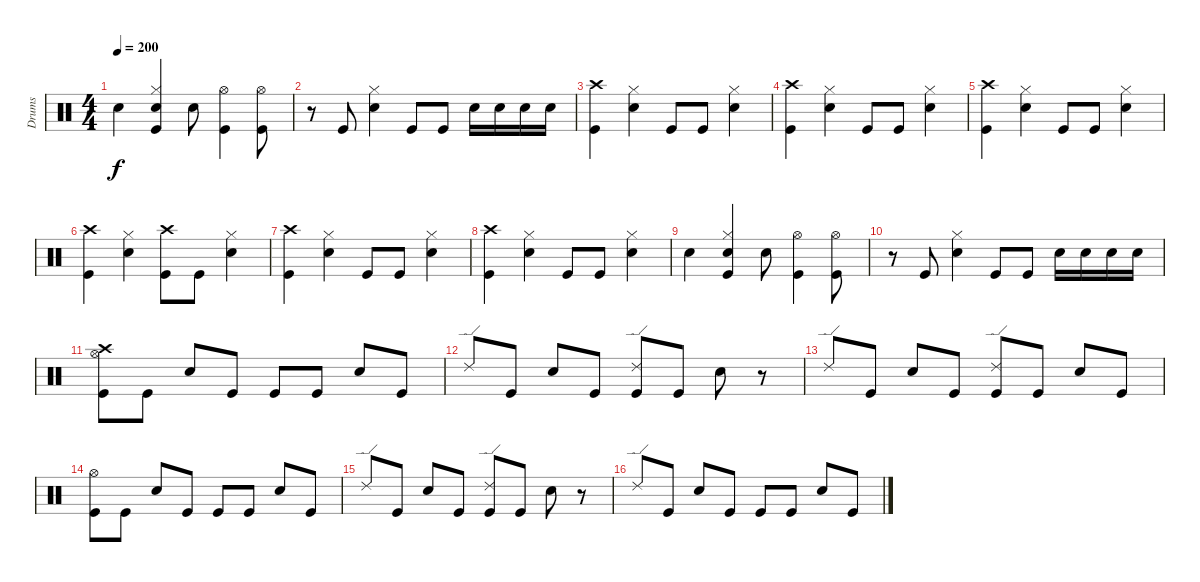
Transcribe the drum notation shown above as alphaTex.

\track ("Drums" "Drums") {instrument percussion}
\staff {score}
\articulation defaults
\ts (4 4)
\tempo 200
\clef neutral
\ks c "Snare (hit) 2".4{dy f}
("Hi-Hat (closed)" "Snare (hit) 2" "Kick (hit)").4 "Snare (hit) 2".8 ("Hi-Hat (open)" "Kick (hit)").4 ("Hi-Hat (open)" "Kick (hit)").8 |
r.8 "Kick (hit)".8 ("Hi-Hat (closed)" "Snare (hit) 2").4 "Kick (hit)".8 "Kick (hit)".8 "Snare (hit) 2".16 "Snare (hit) 2".16 "Snare (hit) 2".16 "Snare (hit) 2".16 |
("Crash high (hit)" "Kick (hit)").4 ("Hi-Hat (closed)" "Snare (hit) 2").4 "Kick (hit)".8 "Kick (hit)".8 ("Hi-Hat (closed)" "Snare (hit) 2").4 |
("Crash high (hit)" "Kick (hit)").4 ("Hi-Hat (closed)" "Snare (hit) 2").4 "Kick (hit)".8 "Kick (hit)".8 ("Hi-Hat (closed)" "Snare (hit) 2").4 |
("Crash high (hit)" "Kick (hit)").4 ("Hi-Hat (closed)" "Snare (hit) 2").4 "Kick (hit)".8 "Kick (hit)".8 ("Hi-Hat (closed)" "Snare (hit) 2").4 |
("Crash high (hit)" "Kick (hit)").4 ("Hi-Hat (closed)" "Snare (hit) 2").4 ("Crash high (hit)" "Kick (hit)").8 "Kick (hit)".8 ("Hi-Hat (closed)" "Snare (hit) 2").4 |
("Crash high (hit)" "Kick (hit)").4 ("Hi-Hat (closed)" "Snare (hit) 2").4 "Kick (hit)".8 "Kick (hit)".8 ("Hi-Hat (closed)" "Snare (hit) 2").4 |
("Crash high (hit)" "Kick (hit)").4 ("Hi-Hat (closed)" "Snare (hit) 2").4 "Kick (hit)".8 "Kick (hit)".8 ("Hi-Hat (closed)" "Snare (hit) 2").4 |
"Snare (hit) 2".4 ("Hi-Hat (closed)" "Snare (hit) 2" "Kick (hit)").4 "Snare (hit) 2".8 ("Hi-Hat (open)" "Kick (hit)").4 ("Hi-Hat (open)" "Kick (hit)").8 |
r.8 "Kick (hit)".8 ("Hi-Hat (closed)" "Snare (hit) 2").4 "Kick (hit)".8 "Kick (hit)".8 "Snare (hit) 2".16 "Snare (hit) 2".16 "Snare (hit) 2".16 "Snare (hit) 2".16 |
("Hi-Hat (open)" "Crash high (hit)" "Kick (hit)").8 "Kick (hit)".8 "Snare (hit) 2".8 "Kick (hit)".8 "Kick (hit)".8 "Kick (hit)".8 "Snare (hit) 2".8 "Kick (hit)".8 |
"Ride (edge) 2".8 "Kick (hit)".8 "Snare (hit) 2".8 "Kick (hit)".8 ("Ride (edge) 2" "Kick (hit)").8 "Kick (hit)".8 "Snare (hit) 2".8 r.8 |
"Ride (edge) 2".8 "Kick (hit)".8 "Snare (hit) 2".8 "Kick (hit)".8 ("Ride (edge) 2" "Kick (hit)").8 "Kick (hit)".8 "Snare (hit) 2".8 "Kick (hit)".8 |
("Hi-Hat (open)" "Kick (hit)").8 "Kick (hit)".8 "Snare (hit) 2".8 "Kick (hit)".8 "Kick (hit)".8 "Kick (hit)".8 "Snare (hit) 2".8 "Kick (hit)".8 |
"Ride (edge) 2".8 "Kick (hit)".8 "Snare (hit) 2".8 "Kick (hit)".8 ("Ride (edge) 2" "Kick (hit)").8 "Kick (hit)".8 "Snare (hit) 2".8 r.8 |
"Ride (edge) 2".8 "Kick (hit)".8 "Snare (hit) 2".8 "Kick (hit)".8 "Kick (hit)".8 "Kick (hit)".8 "Snare (hit) 2".8 "Kick (hit)".8
